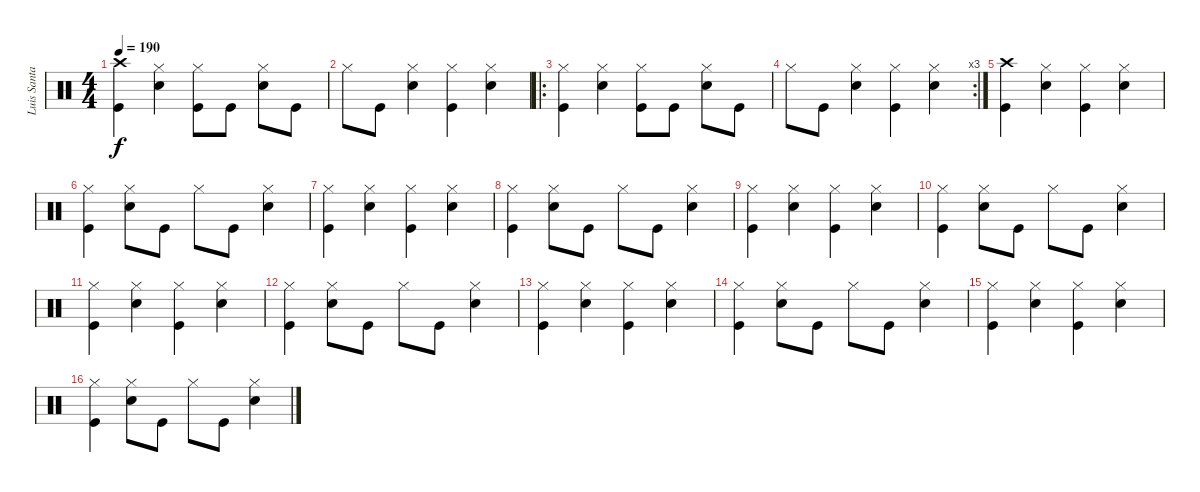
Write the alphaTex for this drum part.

\track ("Luis Santamarina - Batería" "Luis Santa") {instrument percussion}
\staff {score}
\articulation defaults
\ts (4 4)
\tempo 190
\clef neutral
\ks c
("Crash high (hit)" "Kick (hit)").4{dy f} ("Hi-Hat (closed)" "Electric Snare (hit)").4 ("Hi-Hat (closed)" "Kick (hit)").8 "Kick (hit)".8 ("Hi-Hat (closed)" "Electric Snare (hit)").8 "Kick (hit)".8 |
"Hi-Hat (closed)".8 "Kick (hit)".8 ("Hi-Hat (closed)" "Electric Snare (hit)").4 ("Hi-Hat (closed)" "Kick (hit)").4 ("Hi-Hat (closed)" "Electric Snare (hit)").4 |
\ro
("Hi-Hat (closed)" "Kick (hit)").4 ("Hi-Hat (closed)" "Electric Snare (hit)").4 ("Hi-Hat (closed)" "Kick (hit)").8 "Kick (hit)".8 ("Hi-Hat (closed)" "Electric Snare (hit)").8 "Kick (hit)".8 |
\rc 3 "Hi-Hat (closed)".8 "Kick (hit)".8
("Hi-Hat (closed)" "Electric Snare (hit)").4 ("Hi-Hat (closed)" "Kick (hit)").4 ("Hi-Hat (closed)" "Electric Snare (hit)").4 |
("Crash high (hit)" "Kick (hit)").4 ("Hi-Hat (closed)" "Electric Snare (hit)").4 ("Hi-Hat (closed)" "Kick (hit)").4 ("Hi-Hat (closed)" "Electric Snare (hit)").4 |
("Hi-Hat (closed)" "Kick (hit)").4 ("Hi-Hat (closed)" "Electric Snare (hit)").8 "Kick (hit)".8 "Hi-Hat (closed)".8 "Kick (hit)".8 ("Hi-Hat (closed)" "Electric Snare (hit)").4 |
("Hi-Hat (closed)" "Kick (hit)").4 ("Hi-Hat (closed)" "Electric Snare (hit)").4 ("Hi-Hat (closed)" "Kick (hit)").4 ("Hi-Hat (closed)" "Electric Snare (hit)").4 |
("Hi-Hat (closed)" "Kick (hit)").4 ("Hi-Hat (closed)" "Electric Snare (hit)").8 "Kick (hit)".8 "Hi-Hat (closed)".8 "Kick (hit)".8 ("Hi-Hat (closed)" "Electric Snare (hit)").4 |
("Hi-Hat (closed)" "Kick (hit)").4 ("Hi-Hat (closed)" "Electric Snare (hit)").4 ("Hi-Hat (closed)" "Kick (hit)").4 ("Hi-Hat (closed)" "Electric Snare (hit)").4 |
("Hi-Hat (closed)" "Kick (hit)").4 ("Hi-Hat (closed)" "Electric Snare (hit)").8 "Kick (hit)".8 "Hi-Hat (closed)".8 "Kick (hit)".8 ("Hi-Hat (closed)" "Electric Snare (hit)").4 |
("Hi-Hat (closed)" "Kick (hit)").4 ("Hi-Hat (closed)" "Electric Snare (hit)").4 ("Hi-Hat (closed)" "Kick (hit)").4 ("Hi-Hat (closed)" "Electric Snare (hit)").4 |
("Hi-Hat (closed)" "Kick (hit)").4 ("Hi-Hat (closed)" "Electric Snare (hit)").8 "Kick (hit)".8 "Hi-Hat (closed)".8 "Kick (hit)".8 ("Hi-Hat (closed)" "Electric Snare (hit)").4 |
("Hi-Hat (closed)" "Kick (hit)").4 ("Hi-Hat (closed)" "Electric Snare (hit)").4 ("Hi-Hat (closed)" "Kick (hit)").4 ("Hi-Hat (closed)" "Electric Snare (hit)").4 |
("Hi-Hat (closed)" "Kick (hit)").4 ("Hi-Hat (closed)" "Electric Snare (hit)").8 "Kick (hit)".8 "Hi-Hat (closed)".8 "Kick (hit)".8 ("Hi-Hat (closed)" "Electric Snare (hit)").4 |
("Hi-Hat (closed)" "Kick (hit)").4 ("Hi-Hat (closed)" "Electric Snare (hit)").4 ("Hi-Hat (closed)" "Kick (hit)").4 ("Hi-Hat (closed)" "Electric Snare (hit)").4 |
("Hi-Hat (closed)" "Kick (hit)").4 ("Hi-Hat (closed)" "Electric Snare (hit)").8 "Kick (hit)".8 "Hi-Hat (closed)".8 "Kick (hit)".8 ("Hi-Hat (closed)" "Electric Snare (hit)").4
